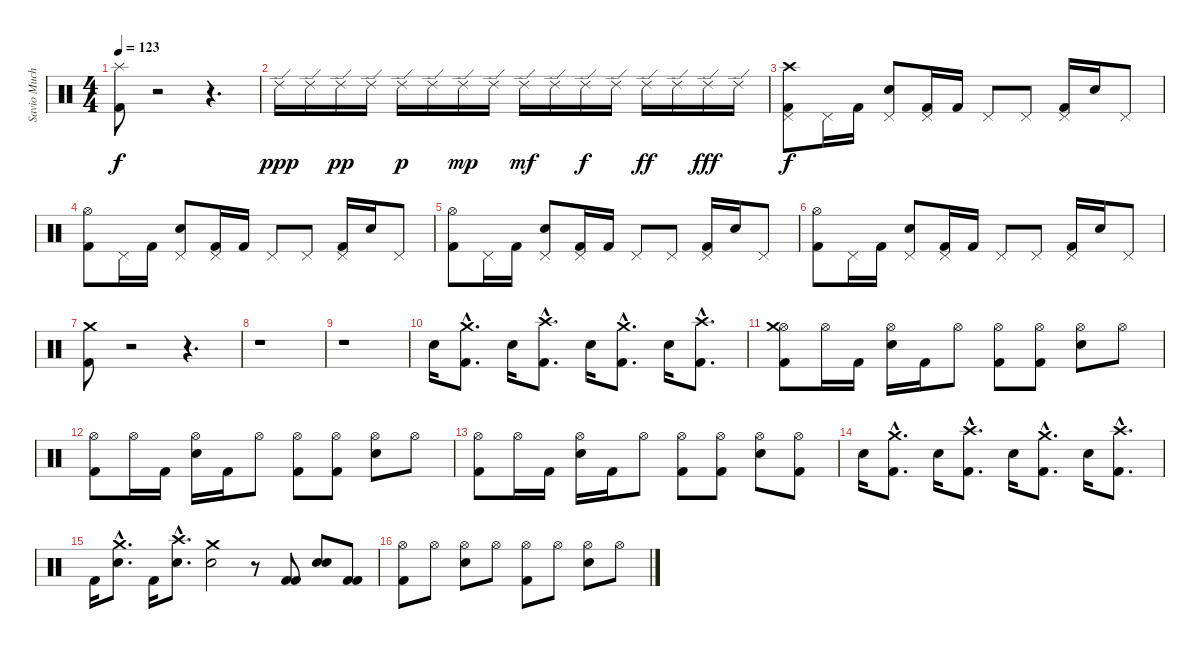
\track ("Savio Muchacho (Drums)" "Savio Much") {instrument percussion}
\staff {score}
\articulation defaults
\ts (4 4)
\tempo 123
\clef neutral
\ks c
("Splash (hit)" "Kick (hit) 2").8{dy f} r.2 r.4{d} |
"Ride (edge) 2".16{dy ppp} "Ride (edge) 2".16 "Ride (edge) 2".16{dy pp} "Ride (edge) 2".16 "Ride (edge) 2".16{dy p} "Ride (edge) 2".16 "Ride (edge) 2".16{dy mp} "Ride (edge) 2".16 "Ride (edge) 2".16{dy mf} "Ride (edge) 2".16 "Ride (edge) 2".16{dy f} "Ride (edge) 2".16 "Ride (edge) 2".16{dy ff} "Ride (edge) 2".16 "Ride (edge) 2".16{dy fff} "Ride (edge) 2".16 |
("Pedal Hi-Hat (hit)" "Crash high (hit)" "Kick (hit) 2").8{dy f} "Pedal Hi-Hat (hit)".16 "Kick (hit) 2".16 ("Pedal Hi-Hat (hit)" "Snare (hit) 2").8 ("Pedal Hi-Hat (hit)" "Kick (hit) 2").16 "Kick (hit) 2".16 "Pedal Hi-Hat (hit)".8 "Pedal Hi-Hat (hit)".8 ("Pedal Hi-Hat (hit)" "Kick (hit) 2").16 "Snare (hit) 2".16 "Pedal Hi-Hat (hit)".8 |
("Hi-Hat (open)" "Kick (hit) 2").8 "Pedal Hi-Hat (hit)".16 "Kick (hit) 2".16 ("Pedal Hi-Hat (hit)" "Snare (hit) 2").8 ("Pedal Hi-Hat (hit)" "Kick (hit) 2").16 "Kick (hit) 2".16 "Pedal Hi-Hat (hit)".8 "Pedal Hi-Hat (hit)".8 ("Pedal Hi-Hat (hit)" "Kick (hit) 2").16 "Snare (hit) 2".16 "Pedal Hi-Hat (hit)".8 |
("Hi-Hat (open)" "Kick (hit) 2").8 "Pedal Hi-Hat (hit)".16 "Kick (hit) 2".16 ("Pedal Hi-Hat (hit)" "Snare (hit) 2").8 ("Pedal Hi-Hat (hit)" "Kick (hit) 2").16 "Kick (hit) 2".16 "Pedal Hi-Hat (hit)".8 "Pedal Hi-Hat (hit)".8 ("Pedal Hi-Hat (hit)" "Kick (hit) 2").16 "Snare (hit) 2".16 "Pedal Hi-Hat (hit)".8 |
("Hi-Hat (open)" "Kick (hit) 2").8 "Pedal Hi-Hat (hit)".16 "Kick (hit) 2".16 ("Pedal Hi-Hat (hit)" "Snare (hit) 2").8 ("Pedal Hi-Hat (hit)" "Kick (hit) 2").16 "Kick (hit) 2".16 "Pedal Hi-Hat (hit)".8 "Pedal Hi-Hat (hit)".8 ("Pedal Hi-Hat (hit)" "Kick (hit) 2").16 "Snare (hit) 2".16 "Pedal Hi-Hat (hit)".8 |
("Crash medium (hit)" "Kick (hit) 2").8 r.2 r.4{d} |
r.1 |
r.1 |
"Snare (hit) 2".16 ("Kick (hit) 2"{hac} "Crash medium (hit)"{hac}).8{d} "Snare (hit) 2".16 ("Kick (hit) 2"{hac} "Crash high (hit)"{hac}).8{d} "Snare (hit) 2".16 ("Kick (hit) 2"{hac} "Crash medium (hit)"{hac}).8{d} "Snare (hit) 2".16 ("Kick (hit) 2"{hac} "Crash high (hit)"{hac}).8{d} |
("Hi-Hat (open)" "Kick (hit) 2" "Crash medium (hit)").8 "Hi-Hat (open)".16 "Kick (hit) 2".16 ("Hi-Hat (open)" "Snare (hit) 2").16 "Kick (hit) 2".16 "Hi-Hat (open)".8 ("Hi-Hat (open)" "Kick (hit) 2").8 ("Hi-Hat (open)" "Kick (hit) 2").8 ("Hi-Hat (open)" "Snare (hit) 2").8 "Hi-Hat (open)".8 |
("Hi-Hat (open)" "Kick (hit) 2").8 "Hi-Hat (open)".16 "Kick (hit) 2".16 ("Hi-Hat (open)" "Snare (hit) 2").16 "Kick (hit) 2".16 "Hi-Hat (open)".8 ("Hi-Hat (open)" "Kick (hit) 2").8 ("Hi-Hat (open)" "Kick (hit) 2").8 ("Hi-Hat (open)" "Snare (hit) 2").8 "Hi-Hat (open)".8 |
("Hi-Hat (open)" "Kick (hit) 2").8 "Hi-Hat (open)".16 "Kick (hit) 2".16 ("Hi-Hat (open)" "Snare (hit) 2").16 "Kick (hit) 2".16 "Hi-Hat (open)".8 ("Hi-Hat (open)" "Kick (hit) 2").8 ("Hi-Hat (open)" "Kick (hit) 2").8 ("Hi-Hat (open)" "Snare (hit) 2").8 ("Hi-Hat (open)" "Kick (hit) 2").8 |
"Snare (hit) 2".16 ("Kick (hit) 2"{hac} "Crash medium (hit)"{hac}).8{d} "Snare (hit) 2".16 ("Kick (hit) 2"{hac} "Crash high (hit)"{hac}).8{d} "Snare (hit) 2".16 ("Kick (hit) 2"{hac} "Crash medium (hit)"{hac}).8{d} "Snare (hit) 2".16 ("Kick (hit) 2"{hac} "Crash high (hit)"{hac}).8{d} |
"Kick (hit) 2".16 ("Snare (hit) 2"{hac} "Crash medium (hit)"{hac}).8{d} "Kick (hit) 2".16 ("Snare (hit) 2"{hac} "Crash high (hit)"{hac}).8{d} ("Snare (hit) 2" "Crash medium (hit)").2 r.8 ("Kick (hit) 2" "Kick (hit) 2").8 ("Snare (hit) 2" "Snare (hit) 2").8 ("Kick (hit) 2" "Kick (hit) 2").8 |
("Hi-Hat (open)" "Kick (hit) 2").8 "Hi-Hat (open)".8 ("Hi-Hat (open)" "Snare (hit) 2").8 "Hi-Hat (open)".8 ("Hi-Hat (open)" "Kick (hit) 2").8 "Hi-Hat (open)".8 ("Hi-Hat (open)" "Snare (hit) 2").8 "Hi-Hat (open)".8
